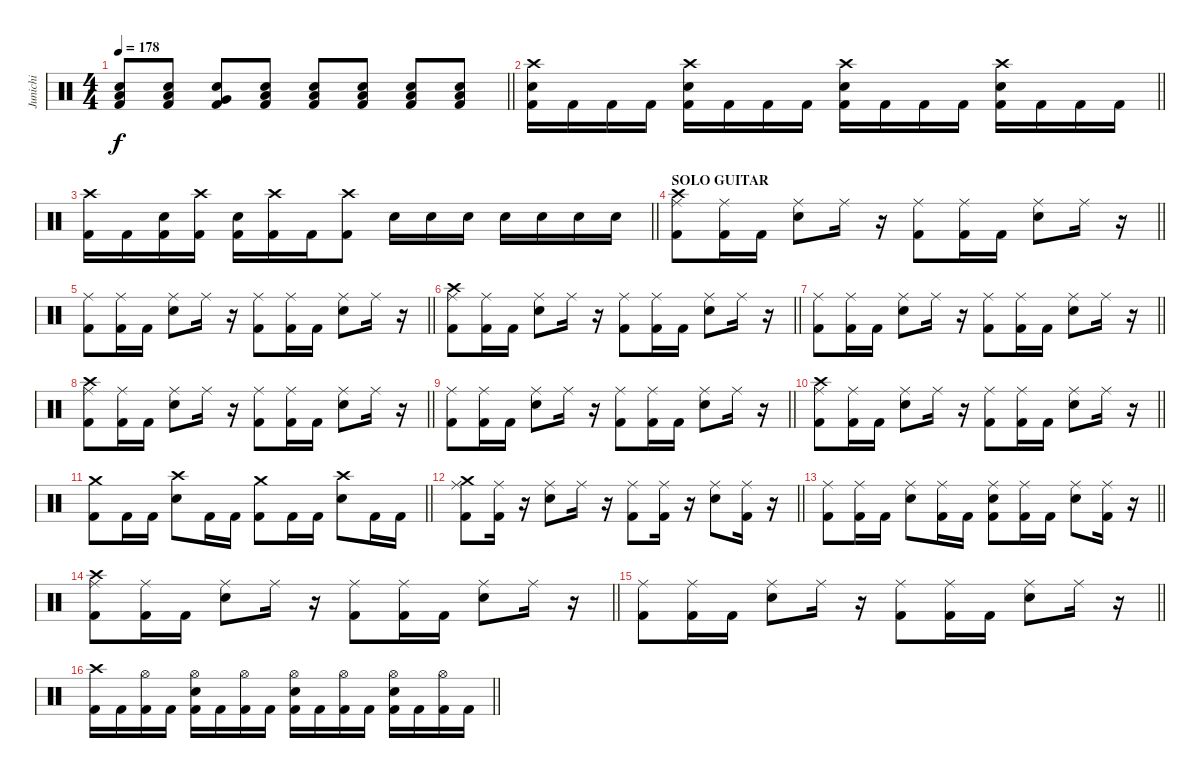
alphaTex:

\track ("Junichi" "Junichi") {instrument percussion}
\staff {score}
\articulation defaults
\ts (4 4)
\tempo 178
\clef neutral
\barLineRight lightlight
\ks c
("Low Tom (hit)" "Snare (hit) 2" "Kick (hit) 2").8{dy f} ("Low Tom (hit)" "Snare (hit) 2" "Kick (hit) 2").8 ("Very Low Tom (hit)" "Snare (hit) 2" "Kick (hit) 2").8 ("Low Tom (hit)" "Snare (hit) 2" "Kick (hit) 2").8 ("Low Tom (hit)" "Snare (hit) 2" "Kick (hit) 2").8 ("Low Tom (hit)" "Snare (hit) 2" "Kick (hit) 2").8 ("Low Tom (hit)" "Snare (hit) 2" "Kick (hit) 2").8 ("Low Tom (hit)" "Snare (hit) 2" "Kick (hit) 2").8 |
\barLineRight lightlight
("Crash high (hit)" "Snare (hit) 2" "Kick (hit) 2").16 "Kick (hit) 2".16 "Kick (hit) 2".16 "Kick (hit) 2".16 ("Crash high (hit)" "Snare (hit) 2" "Kick (hit) 2").16 "Kick (hit) 2".16 "Kick (hit) 2".16 "Kick (hit) 2".16 ("Crash high (hit)" "Snare (hit) 2" "Kick (hit) 2").16 "Kick (hit) 2".16 "Kick (hit) 2".16 "Kick (hit) 2".16 ("Crash high (hit)" "Snare (hit) 2" "Kick (hit) 2").16 "Kick (hit) 2".16 "Kick (hit) 2".16 "Kick (hit) 2".16 |
\barLineRight lightlight
("Crash high (hit)" "Kick (hit) 2").16 "Kick (hit) 2".16 ("Snare (hit) 2" "Kick (hit) 2").16 ("Crash high (hit)" "Kick (hit) 2").16 ("Snare (hit) 2" "Kick (hit) 2").16 ("Crash high (hit)" "Kick (hit) 2").16 "Kick (hit) 2".16 ("Crash high (hit)" "Kick (hit) 2").8 "Snare (hit) 2".16 "Snare (hit) 2".16 "Snare (hit) 2".16 "Snare (hit) 2".16 "Snare (hit) 2".16 "Snare (hit) 2".16 "Snare (hit) 2".16 |
\section ("" "SOLO GUITAR")
\barLineRight lightlight
("Crash high (hit)" "Ride (middle)" "Kick (hit) 2").8 ("Ride (middle)" "Kick (hit) 2").16 "Kick (hit) 2".16 ("Ride (middle)" "Snare (hit) 2").8 "Ride (middle)".16 r.16 ("Ride (middle)" "Kick (hit) 2").8 ("Ride (middle)" "Kick (hit) 2").16 "Kick (hit) 2".16 ("Ride (middle)" "Snare (hit) 2").8 "Ride (middle)".16 r.16 |
\barLineRight lightlight
("Ride (middle)" "Kick (hit) 2").8 ("Ride (middle)" "Kick (hit) 2").16 "Kick (hit) 2".16 ("Ride (middle)" "Snare (hit) 2").8 "Ride (middle)".16 r.16 ("Ride (middle)" "Kick (hit) 2").8 ("Ride (middle)" "Kick (hit) 2").16 "Kick (hit) 2".16 ("Ride (middle)" "Snare (hit) 2").8 "Ride (middle)".16 r.16 |
\barLineRight lightlight
("Crash high (hit)" "Ride (middle)" "Kick (hit) 2").8 ("Ride (middle)" "Kick (hit) 2").16 "Kick (hit) 2".16 ("Ride (middle)" "Snare (hit) 2").8 "Ride (middle)".16 r.16 ("Ride (middle)" "Kick (hit) 2").8 ("Ride (middle)" "Kick (hit) 2").16 "Kick (hit) 2".16 ("Ride (middle)" "Snare (hit) 2").8 "Ride (middle)".16 r.16 |
\barLineRight lightlight
("Ride (middle)" "Kick (hit) 2").8 ("Ride (middle)" "Kick (hit) 2").16 "Kick (hit) 2".16 ("Ride (middle)" "Snare (hit) 2").8 "Ride (middle)".16 r.16 ("Ride (middle)" "Kick (hit) 2").8 ("Ride (middle)" "Kick (hit) 2").16 "Kick (hit) 2".16 ("Ride (middle)" "Snare (hit) 2").8 "Ride (middle)".16 r.16 |
\barLineRight lightlight
("Crash high (hit)" "Ride (middle)" "Kick (hit) 2").8 ("Ride (middle)" "Kick (hit) 2").16 "Kick (hit) 2".16 ("Ride (middle)" "Snare (hit) 2").8 "Ride (middle)".16 r.16 ("Ride (middle)" "Kick (hit) 2").8 ("Ride (middle)" "Kick (hit) 2").16 "Kick (hit) 2".16 ("Ride (middle)" "Snare (hit) 2").8 "Ride (middle)".16 r.16 |
\barLineRight lightlight
("Ride (middle)" "Kick (hit) 2").8 ("Ride (middle)" "Kick (hit) 2").16 "Kick (hit) 2".16 ("Ride (middle)" "Snare (hit) 2").8 "Ride (middle)".16 r.16 ("Ride (middle)" "Kick (hit) 2").8 ("Ride (middle)" "Kick (hit) 2").16 "Kick (hit) 2".16 ("Ride (middle)" "Snare (hit) 2").8 "Ride (middle)".16 r.16 |
\barLineRight lightlight
("Crash high (hit)" "Ride (middle)" "Kick (hit) 2").8 ("Ride (middle)" "Kick (hit) 2").16 "Kick (hit) 2".16 ("Ride (middle)" "Snare (hit) 2").8 "Ride (middle)".16 r.16 ("Ride (middle)" "Kick (hit) 2").8 ("Ride (middle)" "Kick (hit) 2").16 "Kick (hit) 2".16 ("Ride (middle)" "Snare (hit) 2").8 "Ride (middle)".16 r.16 |
\barLineRight lightlight
("Crash medium (hit)" "Kick (hit) 2").8 "Kick (hit) 2".16 "Kick (hit) 2".16 ("Crash high (hit)" "Snare (hit) 2").8 "Kick (hit) 2".16 "Kick (hit) 2".16 ("Crash medium (hit)" "Kick (hit) 2").8 "Kick (hit) 2".16 "Kick (hit) 2".16 ("Crash high (hit)" "Snare (hit) 2").8 "Kick (hit) 2".16 "Kick (hit) 2".16 |
\barLineRight lightlight
("Crash medium (hit)" "Ride (middle)" "Kick (hit) 2").8 ("Ride (middle)" "Kick (hit) 2").16 r.16 ("Ride (middle)" "Snare (hit) 2").8 "Ride (middle)".16 r.16 ("Ride (middle)" "Kick (hit) 2").8 ("Ride (middle)" "Kick (hit) 2").16 r.16 ("Ride (middle)" "Snare (hit) 2").8 ("Ride (middle)" "Kick (hit) 2").16 r.16 |
\barLineRight lightlight
("Ride (middle)" "Kick (hit) 2").8 ("Ride (middle)" "Kick (hit) 2").16 "Kick (hit) 2".16 ("Ride (middle)" "Snare (hit) 2").8 ("Ride (middle)" "Kick (hit) 2").16 "Kick (hit) 2".16 ("Ride (middle)" "Snare (hit) 2" "Kick (hit) 2").8 ("Ride (middle)" "Kick (hit) 2").16 "Kick (hit) 2".16 ("Ride (middle)" "Snare (hit) 2").8 ("Ride (middle)" "Kick (hit) 2").16 r.16 |
\barLineRight lightlight
("Crash high (hit)" "Ride (middle)" "Kick (hit) 2").8 ("Ride (middle)" "Kick (hit) 2").16 "Kick (hit) 2".16 ("Ride (middle)" "Snare (hit) 2").8 "Ride (middle)".16 r.16 ("Ride (middle)" "Kick (hit) 2").8 ("Ride (middle)" "Kick (hit) 2").16 "Kick (hit) 2".16 ("Ride (middle)" "Snare (hit) 2").8 "Ride (middle)".16 r.16 |
\barLineRight lightlight
("Ride (middle)" "Kick (hit) 2").8 ("Ride (middle)" "Kick (hit) 2").16 "Kick (hit) 2".16 ("Ride (middle)" "Snare (hit) 2").8 "Ride (middle)".16 r.16 ("Ride (middle)" "Kick (hit) 2").8 ("Ride (middle)" "Kick (hit) 2").16 "Kick (hit) 2".16 ("Ride (middle)" "Snare (hit) 2").8 "Ride (middle)".16 r.16 |
\barLineRight lightlight
("Crash high (hit)" "Kick (hit) 2").16 "Kick (hit) 2".16 ("Hi-Hat (open)" "Kick (hit) 2").16 "Kick (hit) 2".16 ("Hi-Hat (open)" "Snare (hit) 2" "Kick (hit) 2").16 "Kick (hit) 2".16 ("Hi-Hat (open)" "Kick (hit) 2").16 "Kick (hit) 2".16 ("Hi-Hat (open)" "Snare (hit) 2" "Kick (hit) 2").16 "Kick (hit) 2".16 ("Hi-Hat (open)" "Kick (hit) 2").16 "Kick (hit) 2".16 ("Hi-Hat (open)" "Snare (hit) 2" "Kick (hit) 2").16 "Kick (hit) 2".16 ("Hi-Hat (open)" "Kick (hit) 2").16 "Kick (hit) 2".16
